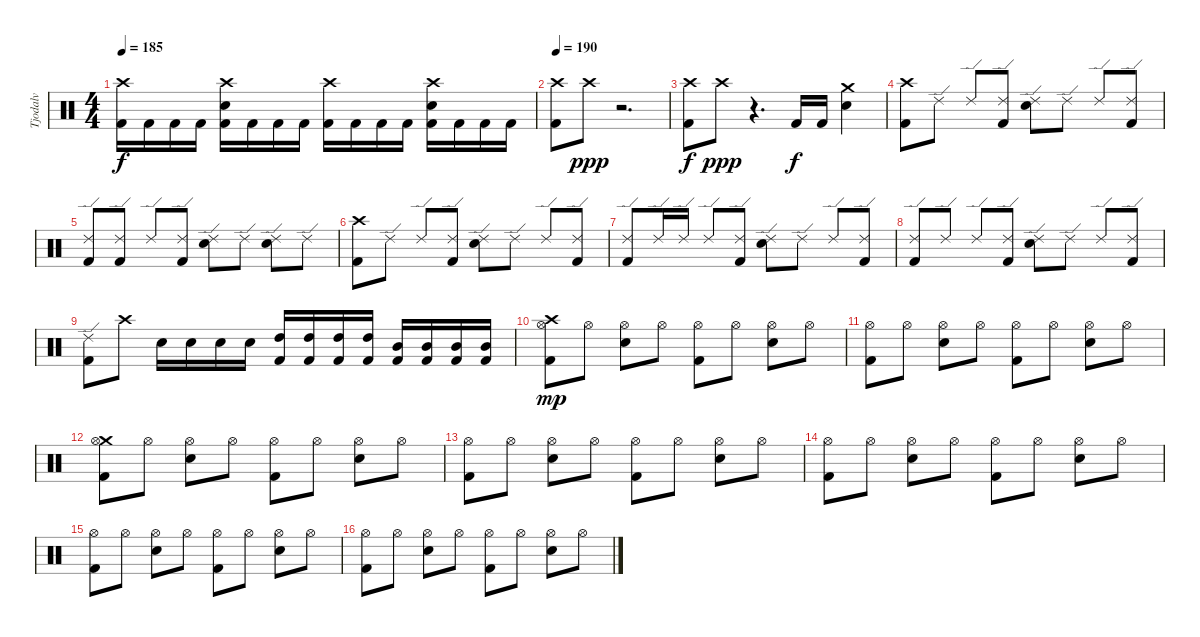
\track ("Tjodalv" "Tjodalv") {instrument percussion}
\staff {score}
\articulation defaults
\ts (4 4)
\tempo 185
\clef neutral
\ks c
("Crash high (hit)" "Kick (hit) 2").16{dy f} "Kick (hit) 2".16 "Kick (hit) 2".16 "Kick (hit) 2".16 ("Crash high (hit)" "Electric Snare (hit)" "Kick (hit) 2").16 "Kick (hit) 2".16 "Kick (hit) 2".16 "Kick (hit) 2".16 ("Crash high (hit)" "Kick (hit) 2").16 "Kick (hit) 2".16 "Kick (hit) 2".16 "Kick (hit) 2".16 ("Crash high (hit)" "Electric Snare (hit)" "Kick (hit) 2").16 "Kick (hit) 2".16 "Kick (hit) 2".16 "Kick (hit) 2".16 |
\tempo 190
("Crash high (hit)" "Kick (hit) 2").8 "Crash high (hit)".8{dy ppp} r.2{d} |
("Crash high (hit)" "Kick (hit) 2").8{dy f} "Crash high (hit)".8{dy ppp} r.4{d} "Kick (hit) 2".16{dy f} "Kick (hit) 2".16 ("Crash medium (hit)" "Electric Snare (hit)").4 |
("Crash high (hit)" "Kick (hit) 2").8 "Ride (edge) 2".8 "Ride (edge) 2".8 ("Ride (edge) 2" "Kick (hit) 2").8 ("Ride (edge) 2" "Electric Snare (hit)").8 "Ride (edge) 2".8 "Ride (edge) 2".8 ("Ride (edge) 2" "Kick (hit) 2").8 |
("Ride (edge) 2" "Kick (hit) 2").8 ("Ride (edge) 2" "Kick (hit) 2").8 "Ride (edge) 2".8 ("Ride (edge) 2" "Kick (hit) 2").8 ("Ride (edge) 2" "Electric Snare (hit)").8 "Ride (edge) 2".8 ("Ride (edge) 2" "Electric Snare (hit)").8 "Ride (edge) 2".8 |
("Crash high (hit)" "Kick (hit) 2").8 "Ride (edge) 2".8 "Ride (edge) 2".8 ("Ride (edge) 2" "Kick (hit) 2").8 ("Ride (edge) 2" "Electric Snare (hit)").8 "Ride (edge) 2".8 "Ride (edge) 2".8 ("Ride (edge) 2" "Kick (hit) 2").8 |
("Ride (edge) 2" "Kick (hit) 2").8 "Ride (edge) 2".16 "Ride (edge) 2".16 "Ride (edge) 2".8 ("Ride (edge) 2" "Kick (hit) 2").8 ("Ride (edge) 2" "Electric Snare (hit)").8 "Ride (edge) 2".8 "Ride (edge) 2".8 ("Ride (edge) 2" "Kick (hit) 2").8 |
("Ride (edge) 2" "Kick (hit) 2").8 "Ride (edge) 2".8 "Ride (edge) 2".8 ("Ride (edge) 2" "Kick (hit) 2").8 ("Ride (edge) 2" "Electric Snare (hit)").8 "Ride (edge) 2".8 "Ride (edge) 2".8 ("Ride (edge) 2" "Kick (hit) 2").8 |
("Ride (edge) 2" "Kick (hit) 2").8 "Crash high (hit)".8 "Electric Snare (hit)".16 "Electric Snare (hit)".16 "Electric Snare (hit)".16 "Electric Snare (hit)".16 ("High Tom (hit)" "Kick (hit) 2").16 ("High Tom (hit)" "Kick (hit) 2").16 ("High Tom (hit)" "Kick (hit) 2").16 ("High Tom (hit)" "Kick (hit) 2").16 ("Mid Tom (hit)" "Kick (hit) 2").16 ("Mid Tom (hit)" "Kick (hit) 2").16 ("Mid Tom (hit)" "Kick (hit) 2").16 ("Mid Tom (hit)" "Kick (hit) 2").16 |
("Crash high (hit)" "Hi-Hat (open)" "Kick (hit) 2").8{dy mp} "Hi-Hat (open)".8 ("Hi-Hat (open)" "Electric Snare (hit)").8 "Hi-Hat (open)".8 ("Hi-Hat (open)" "Kick (hit) 2").8 "Hi-Hat (open)".8 ("Hi-Hat (open)" "Electric Snare (hit)").8 "Hi-Hat (open)".8 |
("Hi-Hat (open)" "Kick (hit) 2").8 "Hi-Hat (open)".8 ("Hi-Hat (open)" "Electric Snare (hit)").8 "Hi-Hat (open)".8 ("Hi-Hat (open)" "Kick (hit) 2").8 "Hi-Hat (open)".8 ("Hi-Hat (open)" "Electric Snare (hit)").8 "Hi-Hat (open)".8 |
("Crash medium (hit)" "Hi-Hat (open)" "Kick (hit) 2").8 "Hi-Hat (open)".8 ("Hi-Hat (open)" "Electric Snare (hit)").8 "Hi-Hat (open)".8 ("Hi-Hat (open)" "Kick (hit) 2").8 "Hi-Hat (open)".8 ("Hi-Hat (open)" "Electric Snare (hit)").8 "Hi-Hat (open)".8 |
("Hi-Hat (open)" "Kick (hit) 2").8 "Hi-Hat (open)".8 ("Hi-Hat (open)" "Electric Snare (hit)").8 "Hi-Hat (open)".8 ("Hi-Hat (open)" "Kick (hit) 2").8 "Hi-Hat (open)".8 ("Hi-Hat (open)" "Electric Snare (hit)").8 "Hi-Hat (open)".8 |
("Hi-Hat (open)" "Kick (hit) 2").8 "Hi-Hat (open)".8 ("Hi-Hat (open)" "Electric Snare (hit)").8 "Hi-Hat (open)".8 ("Hi-Hat (open)" "Kick (hit) 2").8 "Hi-Hat (open)".8 ("Hi-Hat (open)" "Electric Snare (hit)").8 "Hi-Hat (open)".8 |
("Hi-Hat (open)" "Kick (hit) 2").8 "Hi-Hat (open)".8 ("Hi-Hat (open)" "Electric Snare (hit)").8 "Hi-Hat (open)".8 ("Hi-Hat (open)" "Kick (hit) 2").8 "Hi-Hat (open)".8 ("Hi-Hat (open)" "Electric Snare (hit)").8 "Hi-Hat (open)".8 |
("Hi-Hat (open)" "Kick (hit) 2").8 "Hi-Hat (open)".8 ("Hi-Hat (open)" "Electric Snare (hit)").8 "Hi-Hat (open)".8 ("Hi-Hat (open)" "Kick (hit) 2").8 "Hi-Hat (open)".8 ("Hi-Hat (open)" "Electric Snare (hit)").8 "Hi-Hat (open)".8
